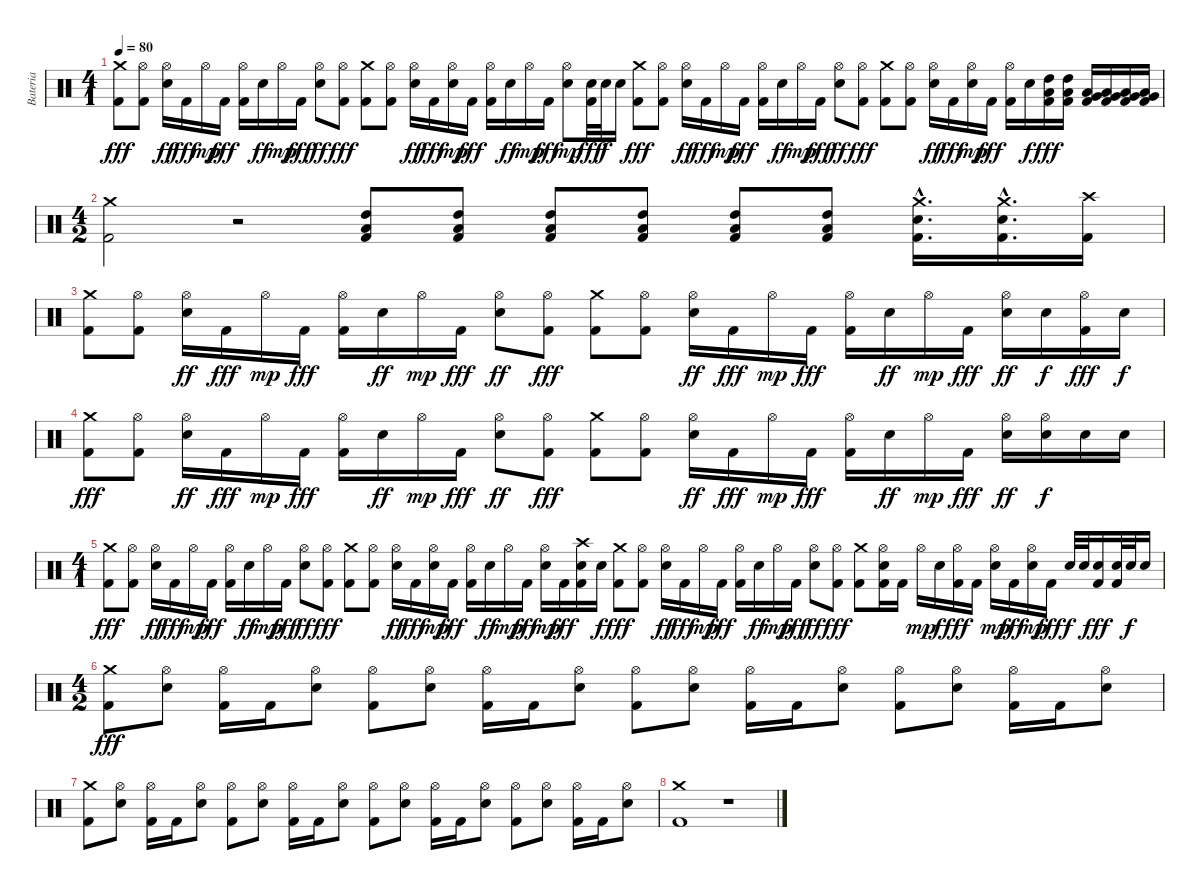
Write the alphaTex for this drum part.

\track ("Bateria" "Bateria") {instrument percussion}
\staff {score}
\articulation defaults
\ts (4 1)
\tempo 80
\clef neutral
\ks c
("Crash medium (hit)" "Kick (hit) 2").8{dy fff} ("Hi-Hat (open)" "Kick (hit) 2").8 ("Hi-Hat (open)" "Electric Snare (hit)").16{dy ff} "Kick (hit) 2".16{dy fff} "Hi-Hat (open)".16{dy mp} "Kick (hit) 2".16{dy fff} ("Hi-Hat (open)" "Kick (hit) 2").16 "Electric Snare (hit)".16{dy ff} "Hi-Hat (open)".16{dy mp} "Kick (hit) 2".16{dy fff} ("Hi-Hat (open)" "Electric Snare (hit)").8{dy ff} ("Hi-Hat (open)" "Kick (hit) 2").8{dy fff} ("Crash medium (hit)" "Kick (hit) 2").8 ("Hi-Hat (open)" "Kick (hit) 2").8 ("Hi-Hat (open)" "Electric Snare (hit)").16{dy ff} "Kick (hit) 2".16{dy fff} ("Hi-Hat (open)" "Electric Snare (hit)").16{dy mp} "Kick (hit) 2".16{dy fff} ("Hi-Hat (open)" "Kick (hit) 2").16 "Electric Snare (hit)".16{dy ff} "Hi-Hat (open)".16{dy mp} "Kick (hit) 2".16{dy fff} ("Hi-Hat (open)" "Electric Snare (hit)").8{dy mp} ("Electric Snare (hit)" "Kick (hit) 2").32{dy fff} "Electric Snare (hit)".32{dy f} "Electric Snare (hit)".16 ("Crash medium (hit)" "Kick (hit) 2").8{dy fff} ("Hi-Hat (open)" "Kick (hit) 2").8 ("Hi-Hat (open)" "Electric Snare (hit)").16{dy ff} "Kick (hit) 2".16{dy fff} "Hi-Hat (open)".16{dy mp} "Kick (hit) 2".16{dy fff} ("Hi-Hat (open)" "Kick (hit) 2").16 "Electric Snare (hit)".16{dy ff} "Hi-Hat (open)".16{dy mp} "Kick (hit) 2".16{dy fff} ("Hi-Hat (open)" "Electric Snare (hit)").8{dy ff} ("Hi-Hat (open)" "Kick (hit) 2").8{dy fff} ("Crash medium (hit)" "Kick (hit) 2").8 ("Hi-Hat (open)" "Kick (hit) 2").8 ("Hi-Hat (open)" "Electric Snare (hit)").16{dy ff} "Kick (hit) 2".16{dy fff} ("Hi-Hat (open)" "Electric Snare (hit)").16{dy mp} "Kick (hit) 2".16{dy fff} ("Hi-Hat (open)" "Kick (hit) 2").16 "Electric Snare (hit)".16{dy f} ("Low Tom (hit)" "High Tom (hit)" "Kick (hit) 2").16{dy fff} ("Low Tom (hit)" "High Tom (hit)" "Kick (hit) 2").16 ("Very Low Tom (hit)" "Low Tom (hit)" "Kick (hit) 2").16 ("Very Low Tom (hit)" "Low Tom (hit)" "Kick (hit) 2").16 ("Low Floor Tom (hit)" "Very Low Tom (hit)" "Kick (hit) 2").16 ("Low Floor Tom (hit)" "Very Low Tom (hit)" "Kick (hit) 2").16 |
\ts (4 2)
("Crash medium (hit)" "Kick (hit) 2").2 r.2 ("Low Tom (hit)" "High Tom (hit)" "Kick (hit) 2").8 ("Low Tom (hit)" "High Tom (hit)" "Kick (hit) 2").8 ("Low Tom (hit)" "High Tom (hit)" "Kick (hit) 2").8 ("Low Tom (hit)" "High Tom (hit)" "Kick (hit) 2").8 ("Low Tom (hit)" "High Tom (hit)" "Kick (hit) 2").8 ("Low Tom (hit)" "High Tom (hit)" "Kick (hit) 2").8 ("Crash medium (hit)"{hac} "Electric Snare (hit)"{hac} "Kick (hit) 2"{hac}).16{d} ("Crash medium (hit)"{hac} "Electric Snare (hit)"{hac} "Kick (hit) 2"{hac}).16{d} ("Crash high (hit)" "Kick (hit) 2").16 |
("Crash medium (hit)" "Kick (hit) 2").8 ("Hi-Hat (open)" "Kick (hit) 2").8 ("Hi-Hat (open)" "Electric Snare (hit)").16{dy ff} "Kick (hit) 2".16{dy fff} "Hi-Hat (open)".16{dy mp} "Kick (hit) 2".16{dy fff} ("Hi-Hat (open)" "Kick (hit) 2").16 "Electric Snare (hit)".16{dy ff} "Hi-Hat (open)".16{dy mp} "Kick (hit) 2".16{dy fff} ("Hi-Hat (open)" "Electric Snare (hit)").8{dy ff} ("Hi-Hat (open)" "Kick (hit) 2").8{dy fff} ("Crash medium (hit)" "Kick (hit) 2").8 ("Hi-Hat (open)" "Kick (hit) 2").8 ("Hi-Hat (open)" "Electric Snare (hit)").16{dy ff} "Kick (hit) 2".16{dy fff} "Hi-Hat (open)".16{dy mp} "Kick (hit) 2".16{dy fff} ("Hi-Hat (open)" "Kick (hit) 2").16 "Electric Snare (hit)".16{dy ff} "Hi-Hat (open)".16{dy mp} "Kick (hit) 2".16{dy fff} ("Hi-Hat (open)" "Electric Snare (hit)").16{dy ff} "Electric Snare (hit)".16{dy f} ("Hi-Hat (open)" "Kick (hit) 2").16{dy fff} "Electric Snare (hit)".16{dy f} |
("Crash medium (hit)" "Kick (hit) 2").8{dy fff} ("Hi-Hat (open)" "Kick (hit) 2").8 ("Hi-Hat (open)" "Electric Snare (hit)").16{dy ff} "Kick (hit) 2".16{dy fff} "Hi-Hat (open)".16{dy mp} "Kick (hit) 2".16{dy fff} ("Hi-Hat (open)" "Kick (hit) 2").16 "Electric Snare (hit)".16{dy ff} "Hi-Hat (open)".16{dy mp} "Kick (hit) 2".16{dy fff} ("Hi-Hat (open)" "Electric Snare (hit)").8{dy ff} ("Hi-Hat (open)" "Kick (hit) 2").8{dy fff} ("Crash medium (hit)" "Kick (hit) 2").8 ("Hi-Hat (open)" "Kick (hit) 2").8 ("Hi-Hat (open)" "Electric Snare (hit)").16{dy ff} "Kick (hit) 2".16{dy fff} "Hi-Hat (open)".16{dy mp} "Kick (hit) 2".16{dy fff} ("Hi-Hat (open)" "Kick (hit) 2").16 "Electric Snare (hit)".16{dy ff} "Hi-Hat (open)".16{dy mp} "Kick (hit) 2".16{dy fff} ("Hi-Hat (open)" "Electric Snare (hit)").16{dy ff} ("Hi-Hat (open)" "Electric Snare (hit)").16{dy f} "Electric Snare (hit)".16 "Electric Snare (hit)".16 |
\ts (4 1)
("Crash medium (hit)" "Kick (hit) 2").8{dy fff} ("Hi-Hat (open)" "Kick (hit) 2").8 ("Hi-Hat (open)" "Electric Snare (hit)").16{dy ff} "Kick (hit) 2".16{dy fff} "Hi-Hat (open)".16{dy mp} "Kick (hit) 2".16{dy fff} ("Hi-Hat (open)" "Kick (hit) 2").16 "Electric Snare (hit)".16{dy ff} "Hi-Hat (open)".16{dy mp} "Kick (hit) 2".16{dy fff} ("Hi-Hat (open)" "Electric Snare (hit)").8{dy ff} ("Hi-Hat (open)" "Kick (hit) 2").8{dy fff} ("Crash medium (hit)" "Kick (hit) 2").8 ("Hi-Hat (open)" "Kick (hit) 2").8 ("Hi-Hat (open)" "Electric Snare (hit)").16{dy ff} "Kick (hit) 2".16{dy fff} ("Hi-Hat (open)" "Electric Snare (hit)").16{dy mp} "Kick (hit) 2".16{dy fff} ("Hi-Hat (open)" "Kick (hit) 2").16 "Electric Snare (hit)".16{dy ff} "Hi-Hat (open)".16{dy mp} "Kick (hit) 2".16{dy fff} ("Hi-Hat (open)" "Electric Snare (hit)").16{dy mp} "Kick (hit) 2".16{dy fff} ("Crash high (hit)" "Electric Snare (hit)" "Kick (hit) 2").16 "Electric Snare (hit)".16{dy f} ("Crash medium (hit)" "Kick (hit) 2").8{dy fff} ("Hi-Hat (open)" "Kick (hit) 2").8 ("Hi-Hat (open)" "Electric Snare (hit)").16{dy ff} "Kick (hit) 2".16{dy fff} "Hi-Hat (open)".16{dy mp} "Kick (hit) 2".16{dy fff} ("Hi-Hat (open)" "Kick (hit) 2").16 "Electric Snare (hit)".16{dy ff} "Hi-Hat (open)".16{dy mp} "Kick (hit) 2".16{dy fff} ("Hi-Hat (open)" "Electric Snare (hit)").8{dy ff} ("Hi-Hat (open)" "Kick (hit) 2").8{dy fff} ("Crash medium (hit)" "Kick (hit) 2").8 ("Hi-Hat (open)" "Electric Snare (hit)" "Kick (hit) 2").16 "Kick (hit) 2".16 "Hi-Hat (open)".16{dy mp} "Electric Snare (hit)".16{dy f} ("Hi-Hat (open)" "Kick (hit) 2").16{dy fff} "Kick (hit) 2".16 ("Hi-Hat (open)" "Electric Snare (hit)").16{dy mp} "Kick (hit) 2".16{dy fff} ("Hi-Hat (open)" "Electric Snare (hit)").16{dy mp} "Kick (hit) 2".16{dy fff} "Electric Snare (hit)".32{dy f} "Electric Snare (hit)".32 ("Electric Snare (hit)" "Kick (hit) 2").16{dy fff} ("Electric Snare (hit)" "Kick (hit) 2").32 "Electric Snare (hit)".32{dy f} "Electric Snare (hit)".16 |
\ts (4 2)
("Crash medium (hit)" "Kick (hit) 2").8{dy fff} ("Hi-Hat (open)" "Electric Snare (hit)").8 ("Hi-Hat (open)" "Kick (hit) 2").16 "Kick (hit) 2".16 ("Hi-Hat (open)" "Electric Snare (hit)").8 ("Hi-Hat (open)" "Kick (hit) 2").8 ("Hi-Hat (open)" "Electric Snare (hit)").8 ("Hi-Hat (open)" "Kick (hit) 2").16 "Kick (hit) 2".16 ("Hi-Hat (open)" "Electric Snare (hit)").8 ("Hi-Hat (open)" "Kick (hit) 2").8 ("Hi-Hat (open)" "Electric Snare (hit)").8 ("Hi-Hat (open)" "Kick (hit) 2").16 "Kick (hit) 2".16 ("Hi-Hat (open)" "Electric Snare (hit)").8 ("Hi-Hat (open)" "Kick (hit) 2").8 ("Hi-Hat (open)" "Electric Snare (hit)").8 ("Hi-Hat (open)" "Kick (hit) 2").16 "Kick (hit) 2".16 ("Hi-Hat (open)" "Electric Snare (hit)").8 |
("Crash medium (hit)" "Kick (hit) 2").8 ("Hi-Hat (open)" "Electric Snare (hit)").8 ("Hi-Hat (open)" "Kick (hit) 2").16 "Kick (hit) 2".16 ("Hi-Hat (open)" "Electric Snare (hit)").8 ("Hi-Hat (open)" "Kick (hit) 2").8 ("Hi-Hat (open)" "Electric Snare (hit)").8 ("Hi-Hat (open)" "Kick (hit) 2").16 "Kick (hit) 2".16 ("Hi-Hat (open)" "Electric Snare (hit)").8 ("Hi-Hat (open)" "Kick (hit) 2").8 ("Hi-Hat (open)" "Electric Snare (hit)").8 ("Hi-Hat (open)" "Kick (hit) 2").16 "Kick (hit) 2".16 ("Hi-Hat (open)" "Electric Snare (hit)").8 ("Hi-Hat (open)" "Kick (hit) 2").8 ("Hi-Hat (open)" "Electric Snare (hit)").8 ("Hi-Hat (open)" "Kick (hit) 2").16 "Kick (hit) 2".16 ("Hi-Hat (open)" "Electric Snare (hit)").8 |
("Crash medium (hit)" "Kick (hit) 2").1 r.1
